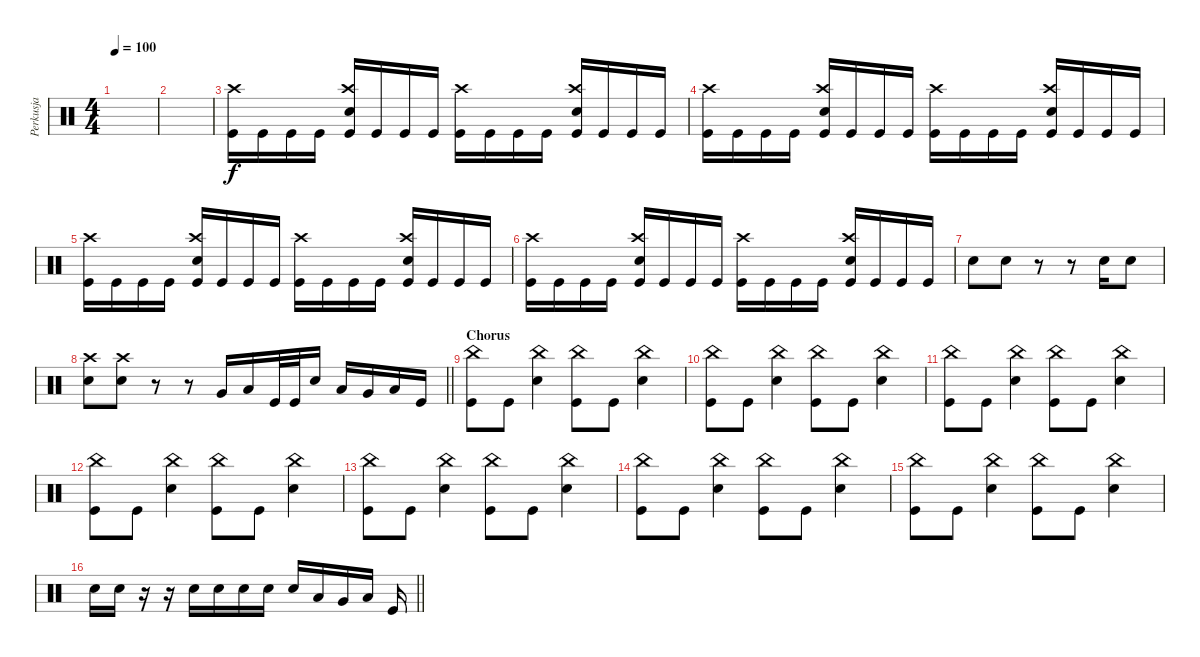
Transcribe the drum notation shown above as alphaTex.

\track ("Perkusja" "Perkusja") {instrument percussion}
\staff {score}
\articulation defaults
\ts (4 4)
\tempo 100
\clef neutral
\ks c
|
|
("Kick (hit)" "Crash high (hit)").16 "Kick (hit)".16 "Kick (hit)".16 "Kick (hit)".16 ("Kick (hit)" "Crash high (hit)" "Snare (hit) 2").16 "Kick (hit)".16 "Kick (hit)".16 "Kick (hit)".16 ("Kick (hit)" "Crash high (hit)").16 "Kick (hit)".16 "Kick (hit)".16 "Kick (hit)".16 ("Kick (hit)" "Crash high (hit)" "Snare (hit) 2").16 "Kick (hit)".16 "Kick (hit)".16 "Kick (hit)".16 |
("Kick (hit)" "Crash high (hit)").16 "Kick (hit)".16 "Kick (hit)".16 "Kick (hit)".16 ("Kick (hit)" "Crash high (hit)" "Snare (hit) 2").16 "Kick (hit)".16 "Kick (hit)".16 "Kick (hit)".16 ("Kick (hit)" "Crash high (hit)").16 "Kick (hit)".16 "Kick (hit)".16 "Kick (hit)".16 ("Kick (hit)" "Crash high (hit)" "Snare (hit) 2").16 "Kick (hit)".16 "Kick (hit)".16 "Kick (hit)".16 |
("Kick (hit)" "Crash high (hit)").16 "Kick (hit)".16 "Kick (hit)".16 "Kick (hit)".16 ("Kick (hit)" "Crash high (hit)" "Snare (hit) 2").16 "Kick (hit)".16 "Kick (hit)".16 "Kick (hit)".16 ("Kick (hit)" "Crash high (hit)").16 "Kick (hit)".16 "Kick (hit)".16 "Kick (hit)".16 ("Kick (hit)" "Crash high (hit)" "Snare (hit) 2").16 "Kick (hit)".16 "Kick (hit)".16 "Kick (hit)".16 |
("Kick (hit)" "Crash high (hit)").16 "Kick (hit)".16 "Kick (hit)".16 "Kick (hit)".16 ("Kick (hit)" "Crash high (hit)" "Snare (hit) 2").16 "Kick (hit)".16 "Kick (hit)".16 "Kick (hit)".16 ("Kick (hit)" "Crash high (hit)").16 "Kick (hit)".16 "Kick (hit)".16 "Kick (hit)".16 ("Kick (hit)" "Crash high (hit)" "Snare (hit) 2").16 "Kick (hit)".16 "Kick (hit)".16 "Kick (hit)".16 |
"Snare (hit) 2".8 "Snare (hit) 2".8 r.8 r.8 "Snare (hit) 2".16 "Snare (hit) 2".8 |
\barLineRight lightlight
("Snare (hit) 2" "Crash high (hit)").8 ("Snare (hit) 2" "Crash high (hit)").8 r.8 r.8 "Very Low Tom (hit)".16 "Low Tom (hit)".16 "Kick (hit)".32 "Kick (hit)".32 "Snare (hit) 2".16 "Low Tom (hit)".16 "Very Low Tom (hit)".16 "Low Floor Tom (hit)".16 "Kick (hit)".16 |
\section ("" "Chorus")
("China (hit)" "Kick (hit)").8 "Kick (hit)".8 ("China (hit)" "Snare (hit) 2").4 ("China (hit)" "Kick (hit)").8 "Kick (hit)".8 ("China (hit)" "Snare (hit) 2").4 |
("China (hit)" "Kick (hit)").8 "Kick (hit)".8 ("China (hit)" "Snare (hit) 2").4 ("China (hit)" "Kick (hit)").8 "Kick (hit)".8 ("China (hit)" "Snare (hit) 2").4 |
("China (hit)" "Kick (hit)").8 "Kick (hit)".8 ("China (hit)" "Snare (hit) 2").4 ("China (hit)" "Kick (hit)").8 "Kick (hit)".8 ("China (hit)" "Snare (hit) 2").4 |
("China (hit)" "Kick (hit)").8 "Kick (hit)".8 ("China (hit)" "Snare (hit) 2").4 ("China (hit)" "Kick (hit)").8 "Kick (hit)".8 ("China (hit)" "Snare (hit) 2").4 |
("China (hit)" "Kick (hit)").8 "Kick (hit)".8 ("China (hit)" "Snare (hit) 2").4 ("China (hit)" "Kick (hit)").8 "Kick (hit)".8 ("China (hit)" "Snare (hit) 2").4 |
("China (hit)" "Kick (hit)").8 "Kick (hit)".8 ("China (hit)" "Snare (hit) 2").4 ("China (hit)" "Kick (hit)").8 "Kick (hit)".8 ("China (hit)" "Snare (hit) 2").4 |
("China (hit)" "Kick (hit)").8 "Kick (hit)".8 ("China (hit)" "Snare (hit) 2").4 ("China (hit)" "Kick (hit)").8 "Kick (hit)".8 ("China (hit)" "Snare (hit) 2").4 |
\barLineRight lightlight "Snare (hit) 2".16 "Snare (hit) 2".16
r.16 r.16 "Snare (hit) 2".16 "Snare (hit) 2".16 "Snare (hit) 2".16 "Snare (hit) 2".16 "Snare (hit) 2".16 "Low Tom (hit)".16 "Very Low Tom (hit)".16 "Low Floor Tom (hit)".16 "Kick (hit)".16
